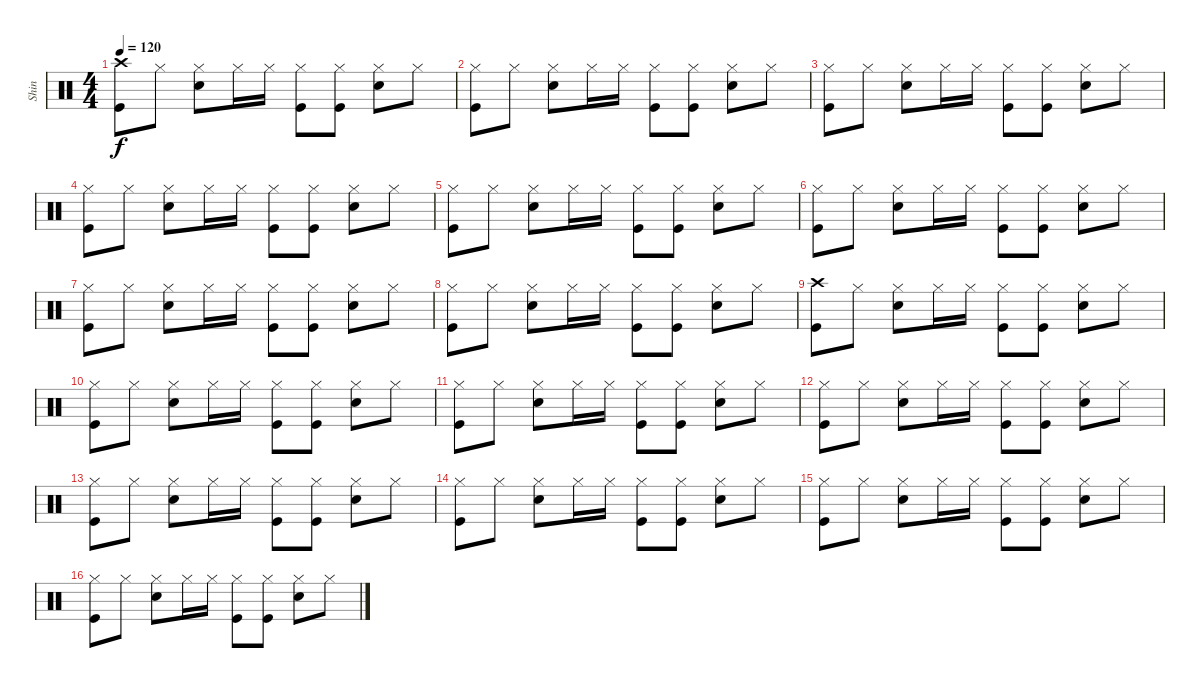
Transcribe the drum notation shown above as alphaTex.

\track ("Shin" "Shin") {instrument percussion}
\staff {score}
\articulation defaults
\ts (4 4)
\tempo 120
\clef neutral
\ks c
("Crash high (hit)" "Kick (hit)").8{dy f} "Hi-Hat (closed)".8 ("Hi-Hat (closed)" "Electric Snare (hit)").8 "Hi-Hat (closed)".16 "Hi-Hat (closed)".16 ("Hi-Hat (closed)" "Kick (hit)").8 ("Hi-Hat (closed)" "Kick (hit)").8 ("Hi-Hat (closed)" "Electric Snare (hit)").8 "Hi-Hat (closed)".8 |
("Hi-Hat (closed)" "Kick (hit)").8 "Hi-Hat (closed)".8 ("Hi-Hat (closed)" "Electric Snare (hit)").8 "Hi-Hat (closed)".16 "Hi-Hat (closed)".16 ("Hi-Hat (closed)" "Kick (hit)").8 ("Hi-Hat (closed)" "Kick (hit)").8 ("Hi-Hat (closed)" "Electric Snare (hit)").8 "Hi-Hat (closed)".8 |
("Hi-Hat (closed)" "Kick (hit)").8 "Hi-Hat (closed)".8 ("Hi-Hat (closed)" "Electric Snare (hit)").8 "Hi-Hat (closed)".16 "Hi-Hat (closed)".16 ("Hi-Hat (closed)" "Kick (hit)").8 ("Hi-Hat (closed)" "Kick (hit)").8 ("Hi-Hat (closed)" "Electric Snare (hit)").8 "Hi-Hat (closed)".8 |
("Hi-Hat (closed)" "Kick (hit)").8 "Hi-Hat (closed)".8 ("Hi-Hat (closed)" "Electric Snare (hit)").8 "Hi-Hat (closed)".16 "Hi-Hat (closed)".16 ("Hi-Hat (closed)" "Kick (hit)").8 ("Hi-Hat (closed)" "Kick (hit)").8 ("Hi-Hat (closed)" "Electric Snare (hit)").8 "Hi-Hat (closed)".8 |
("Hi-Hat (closed)" "Kick (hit)").8 "Hi-Hat (closed)".8 ("Hi-Hat (closed)" "Electric Snare (hit)").8 "Hi-Hat (closed)".16 "Hi-Hat (closed)".16 ("Hi-Hat (closed)" "Kick (hit)").8 ("Hi-Hat (closed)" "Kick (hit)").8 ("Hi-Hat (closed)" "Electric Snare (hit)").8 "Hi-Hat (closed)".8 |
("Hi-Hat (closed)" "Kick (hit)").8 "Hi-Hat (closed)".8 ("Hi-Hat (closed)" "Electric Snare (hit)").8 "Hi-Hat (closed)".16 "Hi-Hat (closed)".16 ("Hi-Hat (closed)" "Kick (hit)").8 ("Hi-Hat (closed)" "Kick (hit)").8 ("Hi-Hat (closed)" "Electric Snare (hit)").8 "Hi-Hat (closed)".8 |
("Hi-Hat (closed)" "Kick (hit)").8 "Hi-Hat (closed)".8 ("Hi-Hat (closed)" "Electric Snare (hit)").8 "Hi-Hat (closed)".16 "Hi-Hat (closed)".16 ("Hi-Hat (closed)" "Kick (hit)").8 ("Hi-Hat (closed)" "Kick (hit)").8 ("Hi-Hat (closed)" "Electric Snare (hit)").8 "Hi-Hat (closed)".8 |
("Hi-Hat (closed)" "Kick (hit)").8 "Hi-Hat (closed)".8 ("Hi-Hat (closed)" "Electric Snare (hit)").8 "Hi-Hat (closed)".16 "Hi-Hat (closed)".16 ("Hi-Hat (closed)" "Kick (hit)").8 ("Hi-Hat (closed)" "Kick (hit)").8 ("Hi-Hat (closed)" "Electric Snare (hit)").8 "Hi-Hat (closed)".8 |
("Crash high (hit)" "Kick (hit)").8 "Hi-Hat (closed)".8 ("Hi-Hat (closed)" "Electric Snare (hit)").8 "Hi-Hat (closed)".16 "Hi-Hat (closed)".16 ("Hi-Hat (closed)" "Kick (hit)").8 ("Hi-Hat (closed)" "Kick (hit)").8 ("Hi-Hat (closed)" "Electric Snare (hit)").8 "Hi-Hat (closed)".8 |
("Hi-Hat (closed)" "Kick (hit)").8 "Hi-Hat (closed)".8 ("Hi-Hat (closed)" "Electric Snare (hit)").8 "Hi-Hat (closed)".16 "Hi-Hat (closed)".16 ("Hi-Hat (closed)" "Kick (hit)").8 ("Hi-Hat (closed)" "Kick (hit)").8 ("Hi-Hat (closed)" "Electric Snare (hit)").8 "Hi-Hat (closed)".8 |
("Hi-Hat (closed)" "Kick (hit)").8 "Hi-Hat (closed)".8 ("Hi-Hat (closed)" "Electric Snare (hit)").8 "Hi-Hat (closed)".16 "Hi-Hat (closed)".16 ("Hi-Hat (closed)" "Kick (hit)").8 ("Hi-Hat (closed)" "Kick (hit)").8 ("Hi-Hat (closed)" "Electric Snare (hit)").8 "Hi-Hat (closed)".8 |
("Hi-Hat (closed)" "Kick (hit)").8 "Hi-Hat (closed)".8 ("Hi-Hat (closed)" "Electric Snare (hit)").8 "Hi-Hat (closed)".16 "Hi-Hat (closed)".16 ("Hi-Hat (closed)" "Kick (hit)").8 ("Hi-Hat (closed)" "Kick (hit)").8 ("Hi-Hat (closed)" "Electric Snare (hit)").8 "Hi-Hat (closed)".8 |
("Hi-Hat (closed)" "Kick (hit)").8 "Hi-Hat (closed)".8 ("Hi-Hat (closed)" "Electric Snare (hit)").8 "Hi-Hat (closed)".16 "Hi-Hat (closed)".16 ("Hi-Hat (closed)" "Kick (hit)").8 ("Hi-Hat (closed)" "Kick (hit)").8 ("Hi-Hat (closed)" "Electric Snare (hit)").8 "Hi-Hat (closed)".8 |
("Hi-Hat (closed)" "Kick (hit)").8 "Hi-Hat (closed)".8 ("Hi-Hat (closed)" "Electric Snare (hit)").8 "Hi-Hat (closed)".16 "Hi-Hat (closed)".16 ("Hi-Hat (closed)" "Kick (hit)").8 ("Hi-Hat (closed)" "Kick (hit)").8 ("Hi-Hat (closed)" "Electric Snare (hit)").8 "Hi-Hat (closed)".8 |
("Hi-Hat (closed)" "Kick (hit)").8 "Hi-Hat (closed)".8 ("Hi-Hat (closed)" "Electric Snare (hit)").8 "Hi-Hat (closed)".16 "Hi-Hat (closed)".16 ("Hi-Hat (closed)" "Kick (hit)").8 ("Hi-Hat (closed)" "Kick (hit)").8 ("Hi-Hat (closed)" "Electric Snare (hit)").8 "Hi-Hat (closed)".8 |
("Hi-Hat (closed)" "Kick (hit)").8 "Hi-Hat (closed)".8 ("Hi-Hat (closed)" "Electric Snare (hit)").8 "Hi-Hat (closed)".16 "Hi-Hat (closed)".16 ("Hi-Hat (closed)" "Kick (hit)").8 ("Hi-Hat (closed)" "Kick (hit)").8 ("Hi-Hat (closed)" "Electric Snare (hit)").8 "Hi-Hat (closed)".8
